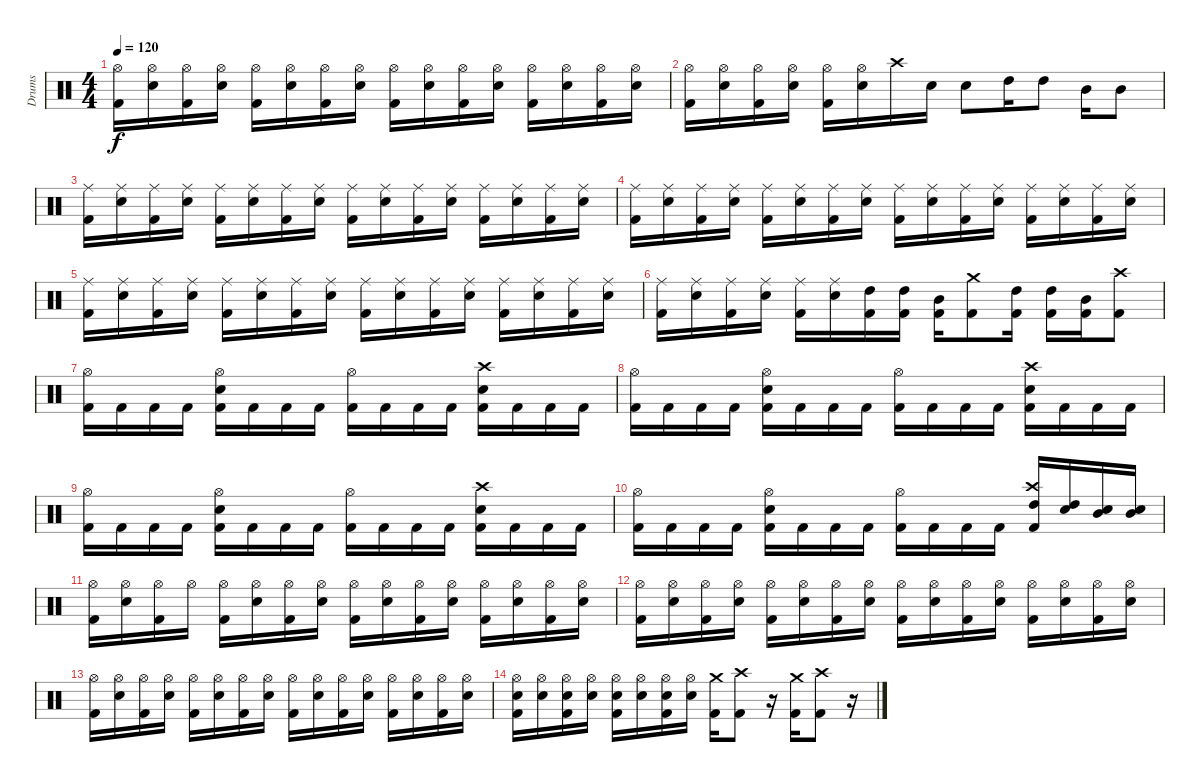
\track ("Drums" "Drums") {instrument percussion}
\staff {score}
\articulation defaults
\ts (4 4)
\tempo 120
\clef neutral
\ks c
("Hi-Hat (open)" "Kick (hit) 2").16{dy f} ("Hi-Hat (open)" "Electric Snare (hit)").16 ("Hi-Hat (open)" "Kick (hit) 2").16 ("Hi-Hat (open)" "Electric Snare (hit)").16 ("Hi-Hat (open)" "Kick (hit) 2").16 ("Hi-Hat (open)" "Electric Snare (hit)").16 ("Hi-Hat (open)" "Kick (hit) 2").16 ("Hi-Hat (open)" "Electric Snare (hit)").16 ("Hi-Hat (open)" "Kick (hit) 2").16 ("Hi-Hat (open)" "Electric Snare (hit)").16 ("Hi-Hat (open)" "Kick (hit) 2").16 ("Hi-Hat (open)" "Electric Snare (hit)").16 ("Hi-Hat (open)" "Kick (hit) 2").16 ("Hi-Hat (open)" "Electric Snare (hit)").16 ("Hi-Hat (open)" "Kick (hit) 2").16 ("Hi-Hat (open)" "Electric Snare (hit)").16 |
("Hi-Hat (open)" "Kick (hit) 2").16 ("Hi-Hat (open)" "Electric Snare (hit)").16 ("Hi-Hat (open)" "Kick (hit) 2").16 ("Hi-Hat (open)" "Electric Snare (hit)").16 ("Hi-Hat (open)" "Kick (hit) 2").16 ("Hi-Hat (open)" "Electric Snare (hit)").16 "Crash high (hit)".16 "Electric Snare (hit)".16 "Electric Snare (hit)".8 "High Tom (hit)".16 "High Tom (hit)".8 "Mid Tom (hit)".16 "Mid Tom (hit)".8 |
("Ride (middle)" "Kick (hit) 2").16 ("Ride (middle)" "Electric Snare (hit)").16 ("Ride (middle)" "Kick (hit) 2").16 ("Ride (middle)" "Electric Snare (hit)").16 ("Ride (middle)" "Kick (hit) 2").16 ("Ride (middle)" "Electric Snare (hit)").16 ("Ride (middle)" "Kick (hit) 2").16 ("Ride (middle)" "Electric Snare (hit)").16 ("Ride (middle)" "Kick (hit) 2").16 ("Ride (middle)" "Electric Snare (hit)").16 ("Ride (middle)" "Kick (hit) 2").16 ("Ride (middle)" "Electric Snare (hit)").16 ("Ride (middle)" "Kick (hit) 2").16 ("Ride (middle)" "Electric Snare (hit)").16 ("Ride (middle)" "Kick (hit) 2").16 ("Ride (middle)" "Electric Snare (hit)").16 |
("Ride (middle)" "Kick (hit) 2").16 ("Ride (middle)" "Electric Snare (hit)").16 ("Ride (middle)" "Kick (hit) 2").16 ("Ride (middle)" "Electric Snare (hit)").16 ("Ride (middle)" "Kick (hit) 2").16 ("Ride (middle)" "Electric Snare (hit)").16 ("Ride (middle)" "Kick (hit) 2").16 ("Ride (middle)" "Electric Snare (hit)").16 ("Ride (middle)" "Kick (hit) 2").16 ("Ride (middle)" "Electric Snare (hit)").16 ("Ride (middle)" "Kick (hit) 2").16 ("Ride (middle)" "Electric Snare (hit)").16 ("Ride (middle)" "Kick (hit) 2").16 ("Ride (middle)" "Electric Snare (hit)").16 ("Ride (middle)" "Kick (hit) 2").16 ("Ride (middle)" "Electric Snare (hit)").16 |
("Ride (middle)" "Kick (hit) 2").16 ("Ride (middle)" "Electric Snare (hit)").16 ("Ride (middle)" "Kick (hit) 2").16 ("Ride (middle)" "Electric Snare (hit)").16 ("Ride (middle)" "Kick (hit) 2").16 ("Ride (middle)" "Electric Snare (hit)").16 ("Ride (middle)" "Kick (hit) 2").16 ("Ride (middle)" "Electric Snare (hit)").16 ("Ride (middle)" "Kick (hit) 2").16 ("Ride (middle)" "Electric Snare (hit)").16 ("Ride (middle)" "Kick (hit) 2").16 ("Ride (middle)" "Electric Snare (hit)").16 ("Ride (middle)" "Kick (hit) 2").16 ("Ride (middle)" "Electric Snare (hit)").16 ("Ride (middle)" "Kick (hit) 2").16 ("Ride (middle)" "Electric Snare (hit)").16 |
("Ride (middle)" "Kick (hit) 2").16 ("Ride (middle)" "Electric Snare (hit)").16 ("Ride (middle)" "Kick (hit) 2").16 ("Ride (middle)" "Electric Snare (hit)").16 ("Ride (middle)" "Kick (hit) 2").16 ("Ride (middle)" "Electric Snare (hit)").16 ("High Tom (hit)" "Kick (hit) 2").16 ("High Tom (hit)" "Kick (hit) 2").16 ("Mid Tom (hit)" "Kick (hit) 2").16 ("Crash medium (hit)" "Kick (hit) 2").8 ("High Tom (hit)" "Kick (hit) 2").16 ("High Tom (hit)" "Kick (hit) 2").16 ("Mid Tom (hit)" "Kick (hit) 2").16 ("Crash high (hit)" "Kick (hit) 2").8 |
("Hi-Hat (open)" "Kick (hit) 2").16 "Kick (hit) 2".16 "Kick (hit) 2".16 "Kick (hit) 2".16 ("Hi-Hat (open)" "Electric Snare (hit)" "Kick (hit) 2").16 "Kick (hit) 2".16 "Kick (hit) 2".16 "Kick (hit) 2".16 ("Hi-Hat (open)" "Kick (hit) 2").16 "Kick (hit) 2".16 "Kick (hit) 2".16 "Kick (hit) 2".16 ("Crash high (hit)" "Electric Snare (hit)" "Kick (hit) 2").16 "Kick (hit) 2".16 "Kick (hit) 2".16 "Kick (hit) 2".16 |
("Hi-Hat (open)" "Kick (hit) 2").16 "Kick (hit) 2".16 "Kick (hit) 2".16 "Kick (hit) 2".16 ("Hi-Hat (open)" "Electric Snare (hit)" "Kick (hit) 2").16 "Kick (hit) 2".16 "Kick (hit) 2".16 "Kick (hit) 2".16 ("Hi-Hat (open)" "Kick (hit) 2").16 "Kick (hit) 2".16 "Kick (hit) 2".16 "Kick (hit) 2".16 ("Crash high (hit)" "Electric Snare (hit)" "Kick (hit) 2").16 "Kick (hit) 2".16 "Kick (hit) 2".16 "Kick (hit) 2".16 |
("Hi-Hat (open)" "Kick (hit) 2").16 "Kick (hit) 2".16 "Kick (hit) 2".16 "Kick (hit) 2".16 ("Hi-Hat (open)" "Electric Snare (hit)" "Kick (hit) 2").16 "Kick (hit) 2".16 "Kick (hit) 2".16 "Kick (hit) 2".16 ("Hi-Hat (open)" "Kick (hit) 2").16 "Kick (hit) 2".16 "Kick (hit) 2".16 "Kick (hit) 2".16 ("Crash high (hit)" "Electric Snare (hit)" "Kick (hit) 2").16 "Kick (hit) 2".16 "Kick (hit) 2".16 "Kick (hit) 2".16 |
("Hi-Hat (open)" "Kick (hit) 2").16 "Kick (hit) 2".16 "Kick (hit) 2".16 "Kick (hit) 2".16 ("Hi-Hat (open)" "Electric Snare (hit)" "Kick (hit) 2").16 "Kick (hit) 2".16 "Kick (hit) 2".16 "Kick (hit) 2".16 ("Hi-Hat (open)" "Kick (hit) 2").16 "Kick (hit) 2".16 "Kick (hit) 2".16 "Kick (hit) 2".16 ("Crash high (hit)" "High Tom (hit)" "Kick (hit) 2").16 ("Electric Snare (hit)" "High Tom (hit)").16 ("Electric Snare (hit)" "Mid Tom (hit)").16 ("Electric Snare (hit)" "Mid Tom (hit)").16 |
("Hi-Hat (open)" "Kick (hit) 2").16 ("Hi-Hat (open)" "Electric Snare (hit)").16 ("Hi-Hat (open)" "Kick (hit) 2").16 "Hi-Hat (open)".16 ("Hi-Hat (open)" "Kick (hit) 2").16 ("Hi-Hat (open)" "Electric Snare (hit)").16 ("Hi-Hat (open)" "Kick (hit) 2").16 ("Hi-Hat (open)" "Electric Snare (hit)").16 ("Hi-Hat (open)" "Kick (hit) 2").16 ("Hi-Hat (open)" "Electric Snare (hit)").16 ("Hi-Hat (open)" "Kick (hit) 2").16 ("Hi-Hat (open)" "Electric Snare (hit)").16 ("Hi-Hat (open)" "Kick (hit) 2").16 ("Hi-Hat (open)" "Electric Snare (hit)").16 ("Hi-Hat (open)" "Kick (hit) 2").16 ("Hi-Hat (open)" "Electric Snare (hit)").16 |
("Hi-Hat (open)" "Kick (hit) 2").16 ("Hi-Hat (open)" "Electric Snare (hit)").16 ("Hi-Hat (open)" "Kick (hit) 2").16 ("Hi-Hat (open)" "Electric Snare (hit)").16 ("Hi-Hat (open)" "Kick (hit) 2").16 ("Hi-Hat (open)" "Electric Snare (hit)").16 ("Hi-Hat (open)" "Kick (hit) 2").16 ("Hi-Hat (open)" "Electric Snare (hit)").16 ("Hi-Hat (open)" "Kick (hit) 2").16 ("Hi-Hat (open)" "Electric Snare (hit)").16 ("Hi-Hat (open)" "Kick (hit) 2").16 ("Hi-Hat (open)" "Electric Snare (hit)").16 ("Hi-Hat (open)" "Kick (hit) 2").16 ("Hi-Hat (open)" "Electric Snare (hit)").16 ("Hi-Hat (open)" "Kick (hit) 2").16 ("Hi-Hat (open)" "Electric Snare (hit)").16 |
("Hi-Hat (open)" "Kick (hit) 2").16 ("Hi-Hat (open)" "Electric Snare (hit)").16 ("Hi-Hat (open)" "Kick (hit) 2").16 ("Hi-Hat (open)" "Electric Snare (hit)").16 ("Hi-Hat (open)" "Kick (hit) 2").16 ("Hi-Hat (open)" "Electric Snare (hit)").16 ("Hi-Hat (open)" "Kick (hit) 2").16 ("Hi-Hat (open)" "Electric Snare (hit)").16 ("Hi-Hat (open)" "Kick (hit) 2").16 ("Hi-Hat (open)" "Electric Snare (hit)").16 ("Hi-Hat (open)" "Kick (hit) 2").16 ("Hi-Hat (open)" "Electric Snare (hit)").16 ("Hi-Hat (open)" "Kick (hit) 2").16 ("Hi-Hat (open)" "Electric Snare (hit)").16 ("Hi-Hat (open)" "Kick (hit) 2").16 ("Hi-Hat (open)" "Electric Snare (hit)").16 |
("Hi-Hat (open)" "Electric Snare (hit)" "Kick (hit) 2").16 ("Hi-Hat (open)" "Electric Snare (hit)").16 ("Hi-Hat (open)" "Electric Snare (hit)" "Kick (hit) 2").16 ("Hi-Hat (open)" "Electric Snare (hit)").16 ("Hi-Hat (open)" "Electric Snare (hit)" "Kick (hit) 2").16 ("Hi-Hat (open)" "Electric Snare (hit)").16 ("Hi-Hat (open)" "Electric Snare (hit)" "Kick (hit) 2").16 ("Hi-Hat (open)" "Electric Snare (hit)").16 ("Crash medium (hit)" "Kick (hit) 2").16 ("Crash high (hit)" "Kick (hit) 2").8 r.16 ("Crash medium (hit)" "Kick (hit) 2").16 ("Crash high (hit)" "Kick (hit) 2").8 r.16
